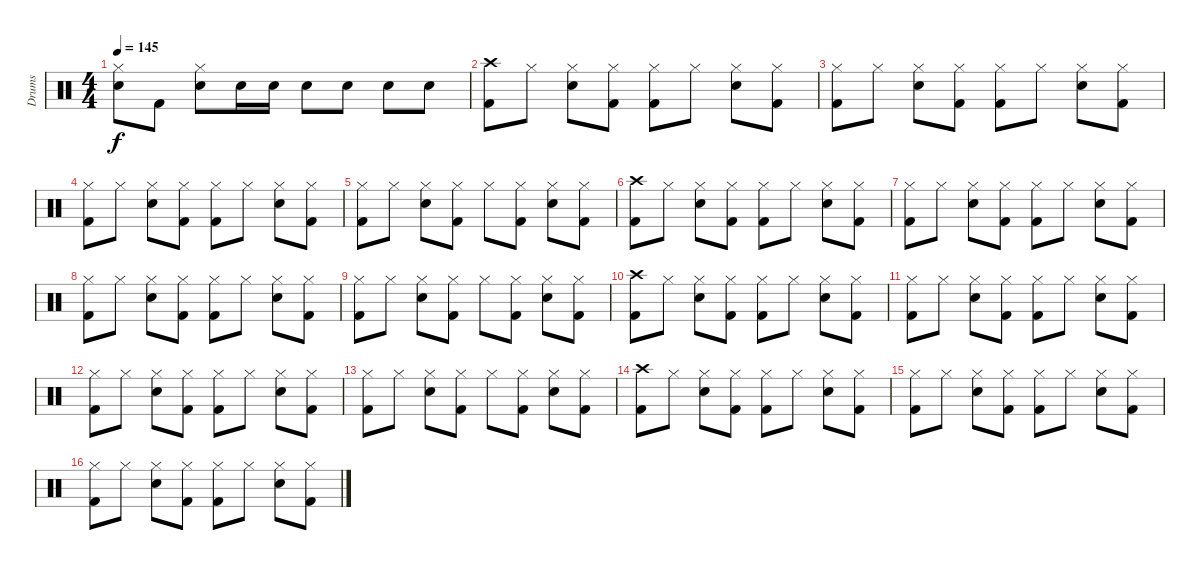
\track ("Drums" "Drums") {instrument percussion}
\staff {score}
\articulation defaults
\ts (4 4)
\tempo 145
\clef neutral
\ks c
("Hi-Hat (closed)" "Electric Snare (hit)").8{dy f} "Kick (hit) 2".8 ("Hi-Hat (closed)" "Electric Snare (hit)").8 "Electric Snare (hit)".16 "Electric Snare (hit)".16 "Electric Snare (hit)".8 "Electric Snare (hit)".8 "Electric Snare (hit)".8 "Electric Snare (hit)".8 |
("Crash high (hit)" "Kick (hit) 2").8 "Hi-Hat (closed)".8 ("Hi-Hat (closed)" "Electric Snare (hit)").8 ("Hi-Hat (closed)" "Kick (hit) 2").8 ("Hi-Hat (closed)" "Kick (hit) 2").8 "Hi-Hat (closed)".8 ("Hi-Hat (closed)" "Electric Snare (hit)").8 ("Hi-Hat (closed)" "Kick (hit) 2").8 |
("Hi-Hat (closed)" "Kick (hit) 2").8 "Hi-Hat (closed)".8 ("Hi-Hat (closed)" "Electric Snare (hit)").8 ("Hi-Hat (closed)" "Kick (hit) 2").8 ("Hi-Hat (closed)" "Kick (hit) 2").8 "Hi-Hat (closed)".8 ("Hi-Hat (closed)" "Electric Snare (hit)").8 ("Hi-Hat (closed)" "Kick (hit) 2").8 |
("Hi-Hat (closed)" "Kick (hit) 2").8 "Hi-Hat (closed)".8 ("Hi-Hat (closed)" "Electric Snare (hit)").8 ("Hi-Hat (closed)" "Kick (hit) 2").8 ("Hi-Hat (closed)" "Kick (hit) 2").8 "Hi-Hat (closed)".8 ("Hi-Hat (closed)" "Electric Snare (hit)").8 ("Hi-Hat (closed)" "Kick (hit) 2").8 |
("Hi-Hat (closed)" "Kick (hit) 2").8 "Hi-Hat (closed)".8 ("Hi-Hat (closed)" "Electric Snare (hit)").8 ("Hi-Hat (closed)" "Kick (hit) 2").8 "Hi-Hat (closed)".8 ("Hi-Hat (closed)" "Kick (hit) 2").8 ("Hi-Hat (closed)" "Electric Snare (hit)").8 ("Hi-Hat (closed)" "Kick (hit) 2").8 |
("Crash high (hit)" "Kick (hit) 2").8 "Hi-Hat (closed)".8 ("Hi-Hat (closed)" "Electric Snare (hit)").8 ("Hi-Hat (closed)" "Kick (hit) 2").8 ("Hi-Hat (closed)" "Kick (hit) 2").8 "Hi-Hat (closed)".8 ("Hi-Hat (closed)" "Electric Snare (hit)").8 ("Hi-Hat (closed)" "Kick (hit) 2").8 |
("Hi-Hat (closed)" "Kick (hit) 2").8 "Hi-Hat (closed)".8 ("Hi-Hat (closed)" "Electric Snare (hit)").8 ("Hi-Hat (closed)" "Kick (hit) 2").8 ("Hi-Hat (closed)" "Kick (hit) 2").8 "Hi-Hat (closed)".8 ("Hi-Hat (closed)" "Electric Snare (hit)").8 ("Hi-Hat (closed)" "Kick (hit) 2").8 |
("Hi-Hat (closed)" "Kick (hit) 2").8 "Hi-Hat (closed)".8 ("Hi-Hat (closed)" "Electric Snare (hit)").8 ("Hi-Hat (closed)" "Kick (hit) 2").8 ("Hi-Hat (closed)" "Kick (hit) 2").8 "Hi-Hat (closed)".8 ("Hi-Hat (closed)" "Electric Snare (hit)").8 ("Hi-Hat (closed)" "Kick (hit) 2").8 |
("Hi-Hat (closed)" "Kick (hit) 2").8 "Hi-Hat (closed)".8 ("Hi-Hat (closed)" "Electric Snare (hit)").8 ("Hi-Hat (closed)" "Kick (hit) 2").8 "Hi-Hat (closed)".8 ("Hi-Hat (closed)" "Kick (hit) 2").8 ("Hi-Hat (closed)" "Electric Snare (hit)").8 ("Hi-Hat (closed)" "Kick (hit) 2").8 |
("Crash high (hit)" "Kick (hit) 2").8 "Hi-Hat (closed)".8 ("Hi-Hat (closed)" "Electric Snare (hit)").8 ("Hi-Hat (closed)" "Kick (hit) 2").8 ("Hi-Hat (closed)" "Kick (hit) 2").8 "Hi-Hat (closed)".8 ("Hi-Hat (closed)" "Electric Snare (hit)").8 ("Hi-Hat (closed)" "Kick (hit) 2").8 |
("Hi-Hat (closed)" "Kick (hit) 2").8 "Hi-Hat (closed)".8 ("Hi-Hat (closed)" "Electric Snare (hit)").8 ("Hi-Hat (closed)" "Kick (hit) 2").8 ("Hi-Hat (closed)" "Kick (hit) 2").8 "Hi-Hat (closed)".8 ("Hi-Hat (closed)" "Electric Snare (hit)").8 ("Hi-Hat (closed)" "Kick (hit) 2").8 |
("Hi-Hat (closed)" "Kick (hit) 2").8 "Hi-Hat (closed)".8 ("Hi-Hat (closed)" "Electric Snare (hit)").8 ("Hi-Hat (closed)" "Kick (hit) 2").8 ("Hi-Hat (closed)" "Kick (hit) 2").8 "Hi-Hat (closed)".8 ("Hi-Hat (closed)" "Electric Snare (hit)").8 ("Hi-Hat (closed)" "Kick (hit) 2").8 |
("Hi-Hat (closed)" "Kick (hit) 2").8 "Hi-Hat (closed)".8 ("Hi-Hat (closed)" "Electric Snare (hit)").8 ("Hi-Hat (closed)" "Kick (hit) 2").8 "Hi-Hat (closed)".8 ("Hi-Hat (closed)" "Kick (hit) 2").8 ("Hi-Hat (closed)" "Electric Snare (hit)").8 ("Hi-Hat (closed)" "Kick (hit) 2").8 |
("Crash high (hit)" "Kick (hit) 2").8 "Hi-Hat (closed)".8 ("Hi-Hat (closed)" "Electric Snare (hit)").8 ("Hi-Hat (closed)" "Kick (hit) 2").8 ("Hi-Hat (closed)" "Kick (hit) 2").8 "Hi-Hat (closed)".8 ("Hi-Hat (closed)" "Electric Snare (hit)").8 ("Hi-Hat (closed)" "Kick (hit) 2").8 |
("Hi-Hat (closed)" "Kick (hit) 2").8 "Hi-Hat (closed)".8 ("Hi-Hat (closed)" "Electric Snare (hit)").8 ("Hi-Hat (closed)" "Kick (hit) 2").8 ("Hi-Hat (closed)" "Kick (hit) 2").8 "Hi-Hat (closed)".8 ("Hi-Hat (closed)" "Electric Snare (hit)").8 ("Hi-Hat (closed)" "Kick (hit) 2").8 |
("Hi-Hat (closed)" "Kick (hit) 2").8 "Hi-Hat (closed)".8 ("Hi-Hat (closed)" "Electric Snare (hit)").8 ("Hi-Hat (closed)" "Kick (hit) 2").8 ("Hi-Hat (closed)" "Kick (hit) 2").8 "Hi-Hat (closed)".8 ("Hi-Hat (closed)" "Electric Snare (hit)").8 ("Hi-Hat (closed)" "Kick (hit) 2").8
